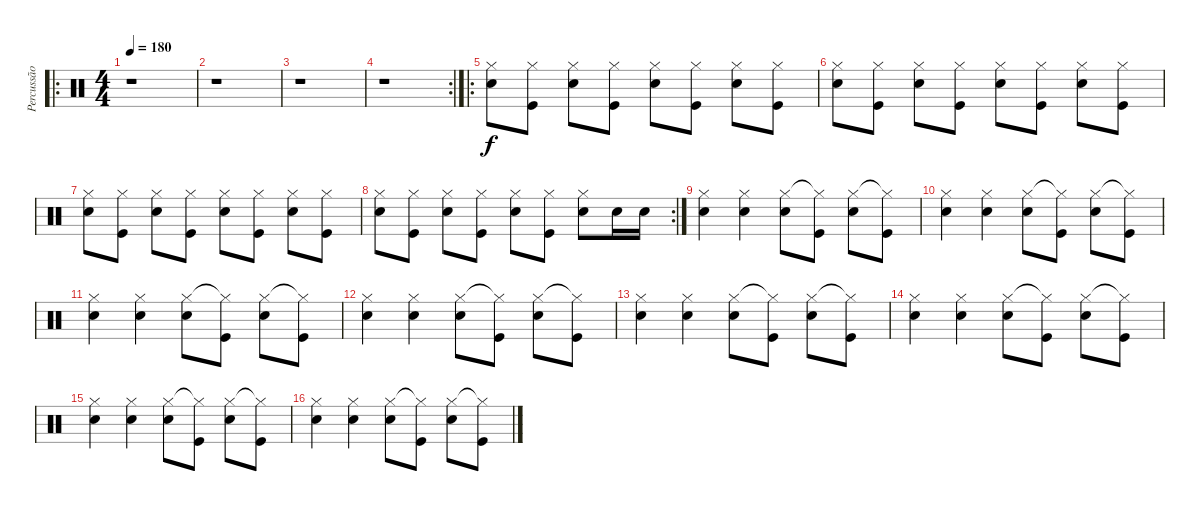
\track ("Percussão" "Percussão") {instrument percussion}
\staff {score}
\articulation defaults
\ro
\ts (4 4)
\tempo 180
\clef neutral
\ks c
r.1{dy f} |
r.1 |
r.1 |
\rc 2
r.1 |
\ro
("Hi-Hat (closed)" "Snare (hit) 2").8 ("Hi-Hat (closed)" "Kick (hit)").8 ("Hi-Hat (closed)" "Snare (hit) 2").8 ("Hi-Hat (closed)" "Kick (hit)").8 ("Hi-Hat (closed)" "Snare (hit) 2").8 ("Hi-Hat (closed)" "Kick (hit)").8 ("Hi-Hat (closed)" "Snare (hit) 2").8 ("Hi-Hat (closed)" "Kick (hit)").8 |
("Hi-Hat (closed)" "Snare (hit) 2").8 ("Hi-Hat (closed)" "Kick (hit)").8 ("Hi-Hat (closed)" "Snare (hit) 2").8 ("Hi-Hat (closed)" "Kick (hit)").8 ("Hi-Hat (closed)" "Snare (hit) 2").8 ("Hi-Hat (closed)" "Kick (hit)").8 ("Hi-Hat (closed)" "Snare (hit) 2").8 ("Hi-Hat (closed)" "Kick (hit)").8 |
("Hi-Hat (closed)" "Snare (hit) 2").8 ("Hi-Hat (closed)" "Kick (hit)").8 ("Hi-Hat (closed)" "Snare (hit) 2").8 ("Hi-Hat (closed)" "Kick (hit)").8 ("Hi-Hat (closed)" "Snare (hit) 2").8 ("Hi-Hat (closed)" "Kick (hit)").8 ("Hi-Hat (closed)" "Snare (hit) 2").8 ("Hi-Hat (closed)" "Kick (hit)").8 |
\rc 2
("Hi-Hat (closed)" "Snare (hit) 2").8 ("Hi-Hat (closed)" "Kick (hit)").8 ("Hi-Hat (closed)" "Snare (hit) 2").8 ("Hi-Hat (closed)" "Kick (hit)").8 ("Hi-Hat (closed)" "Snare (hit) 2").8 ("Hi-Hat (closed)" "Kick (hit)").8 ("Hi-Hat (closed)" "Snare (hit) 2").8 "Snare (hit) 2".16 "Snare (hit) 2".16 |
("Hi-Hat (closed)" "Snare (hit) 2").4 ("Hi-Hat (closed)" "Snare (hit) 2").4 ("Hi-Hat (closed)" "Snare (hit) 2").8 ("Hi-Hat (closed)"{t} "Kick (hit)").8 ("Hi-Hat (closed)" "Snare (hit) 2").8 ("Hi-Hat (closed)"{t} "Kick (hit)").8 |
("Hi-Hat (closed)" "Snare (hit) 2").4 ("Hi-Hat (closed)" "Snare (hit) 2").4 ("Hi-Hat (closed)" "Snare (hit) 2").8 ("Hi-Hat (closed)"{t} "Kick (hit)").8 ("Hi-Hat (closed)" "Snare (hit) 2").8 ("Hi-Hat (closed)"{t} "Kick (hit)").8 |
("Hi-Hat (closed)" "Snare (hit) 2").4 ("Hi-Hat (closed)" "Snare (hit) 2").4 ("Hi-Hat (closed)" "Snare (hit) 2").8 ("Hi-Hat (closed)"{t} "Kick (hit)").8 ("Hi-Hat (closed)" "Snare (hit) 2").8 ("Hi-Hat (closed)"{t} "Kick (hit)").8 |
("Hi-Hat (closed)" "Snare (hit) 2").4 ("Hi-Hat (closed)" "Snare (hit) 2").4 ("Hi-Hat (closed)" "Snare (hit) 2").8 ("Hi-Hat (closed)"{t} "Kick (hit)").8 ("Hi-Hat (closed)" "Snare (hit) 2").8 ("Hi-Hat (closed)"{t} "Kick (hit)").8 |
("Hi-Hat (closed)" "Snare (hit) 2").4 ("Hi-Hat (closed)" "Snare (hit) 2").4 ("Hi-Hat (closed)" "Snare (hit) 2").8 ("Hi-Hat (closed)"{t} "Kick (hit)").8 ("Hi-Hat (closed)" "Snare (hit) 2").8 ("Hi-Hat (closed)"{t} "Kick (hit)").8 |
("Hi-Hat (closed)" "Snare (hit) 2").4 ("Hi-Hat (closed)" "Snare (hit) 2").4 ("Hi-Hat (closed)" "Snare (hit) 2").8 ("Hi-Hat (closed)"{t} "Kick (hit)").8 ("Hi-Hat (closed)" "Snare (hit) 2").8 ("Hi-Hat (closed)"{t} "Kick (hit)").8 |
("Hi-Hat (closed)" "Snare (hit) 2").4 ("Hi-Hat (closed)" "Snare (hit) 2").4 ("Hi-Hat (closed)" "Snare (hit) 2").8 ("Hi-Hat (closed)"{t} "Kick (hit)").8 ("Hi-Hat (closed)" "Snare (hit) 2").8 ("Hi-Hat (closed)"{t} "Kick (hit)").8 |
("Hi-Hat (closed)" "Snare (hit) 2").4 ("Hi-Hat (closed)" "Snare (hit) 2").4 ("Hi-Hat (closed)" "Snare (hit) 2").8 ("Hi-Hat (closed)"{t} "Kick (hit)").8 ("Hi-Hat (closed)" "Snare (hit) 2").8 ("Hi-Hat (closed)"{t} "Kick (hit)").8
